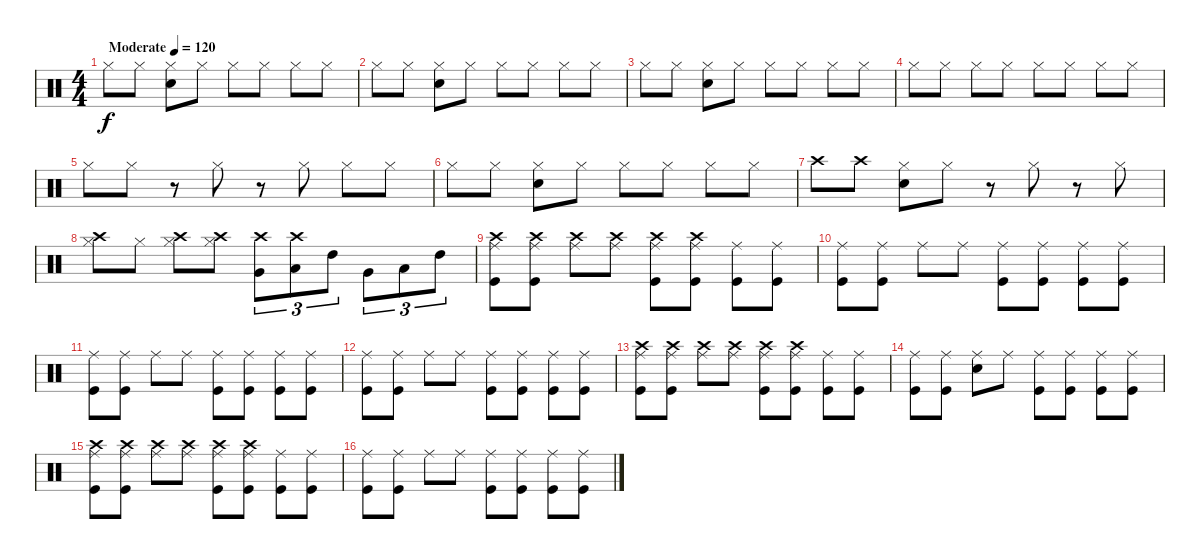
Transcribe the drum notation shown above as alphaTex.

\track "" {instrument percussion}
\staff {score}
\articulation defaults
\ts (4 4)
\tempo (120 "Moderate")
\clef neutral
\ks c "Hi-Hat (closed)".8{dy f} "Hi-Hat (closed)".8
("Hi-Hat (closed)" "Snare (hit) 2").8 "Hi-Hat (closed)".8 "Hi-Hat (closed)".8 "Hi-Hat (closed)".8 "Hi-Hat (closed)".8 "Hi-Hat (closed)".8 |
"Hi-Hat (closed)".8 "Hi-Hat (closed)".8 ("Hi-Hat (closed)" "Snare (hit) 2").8 "Hi-Hat (closed)".8 "Hi-Hat (closed)".8 "Hi-Hat (closed)".8 "Hi-Hat (closed)".8 "Hi-Hat (closed)".8 |
"Hi-Hat (closed)".8 "Hi-Hat (closed)".8 ("Hi-Hat (closed)" "Snare (hit) 2").8 "Hi-Hat (closed)".8 "Hi-Hat (closed)".8 "Hi-Hat (closed)".8 "Hi-Hat (closed)".8 "Hi-Hat (closed)".8 |
"Hi-Hat (closed)".8 "Hi-Hat (closed)".8 "Hi-Hat (closed)".8 "Hi-Hat (closed)".8 "Hi-Hat (closed)".8 "Hi-Hat (closed)".8 "Hi-Hat (closed)".8 "Hi-Hat (closed)".8 |
"Hi-Hat (closed)".8 "Hi-Hat (closed)".8 r.8 "Hi-Hat (closed)".8 r.8 "Hi-Hat (closed)".8 "Hi-Hat (closed)".8 "Hi-Hat (closed)".8 |
"Hi-Hat (closed)".8 "Hi-Hat (closed)".8 ("Hi-Hat (closed)" "Snare (hit) 2").8 "Hi-Hat (closed)".8 "Hi-Hat (closed)".8 "Hi-Hat (closed)".8 "Hi-Hat (closed)".8 "Hi-Hat (closed)".8 |
"Crash high (hit)".8 "Crash high (hit)".8 ("Hi-Hat (closed)" "Snare (hit) 2").8 "Hi-Hat (closed)".8 r.8 "Hi-Hat (closed)".8 r.8 "Hi-Hat (closed)".8 |
("Crash high (hit)" "Hi-Hat (closed)").8 "Hi-Hat (closed)".8 ("Hi-Hat (closed)" "Crash high (hit)").8 ("Hi-Hat (closed)" "Crash high (hit)").8 ("Very Low Tom (hit)" "Crash high (hit)").8{tu (3 2)} ("Low Tom (hit)" "Crash high (hit)").8{tu (3 2)} "High Tom (hit)".8{tu (3 2)} "Very Low Tom (hit)".8{tu (3 2)} "Low Tom (hit)".8{tu (3 2)} "High Tom (hit)".8{tu (3 2)} |
("Ride (middle)" "Kick (hit)" "Crash high (hit)").8 ("Ride (middle)" "Kick (hit)" "Crash high (hit)").8 ("Ride (middle)" "Crash high (hit)").8 ("Ride (middle)" "Crash high (hit)").8 ("Ride (middle)" "Kick (hit)" "Crash high (hit)").8 ("Ride (middle)" "Kick (hit)" "Crash high (hit)").8 ("Ride (middle)" "Kick (hit)").8 ("Ride (middle)" "Kick (hit)").8 |
("Ride (middle)" "Kick (hit)").8 ("Ride (middle)" "Kick (hit)").8 "Ride (middle)".8 "Ride (middle)".8 ("Ride (middle)" "Kick (hit)").8 ("Ride (middle)" "Kick (hit)").8 ("Ride (middle)" "Kick (hit)").8 ("Ride (middle)" "Kick (hit)").8 |
("Ride (middle)" "Kick (hit)").8 ("Ride (middle)" "Kick (hit)").8 "Ride (middle)".8 "Ride (middle)".8 ("Ride (middle)" "Kick (hit)").8 ("Ride (middle)" "Kick (hit)").8 ("Ride (middle)" "Kick (hit)").8 ("Ride (middle)" "Kick (hit)").8 |
("Ride (middle)" "Kick (hit)").8 ("Ride (middle)" "Kick (hit)").8 "Ride (middle)".8 "Ride (middle)".8 ("Ride (middle)" "Kick (hit)").8 ("Ride (middle)" "Kick (hit)").8 ("Ride (middle)" "Kick (hit)").8 ("Ride (middle)" "Kick (hit)").8 |
("Ride (middle)" "Kick (hit)" "Crash high (hit)").8 ("Ride (middle)" "Kick (hit)" "Crash high (hit)").8 ("Ride (middle)" "Crash high (hit)").8 ("Ride (middle)" "Crash high (hit)").8 ("Ride (middle)" "Kick (hit)" "Crash high (hit)").8 ("Ride (middle)" "Kick (hit)" "Crash high (hit)").8 ("Ride (middle)" "Kick (hit)").8 ("Ride (middle)" "Kick (hit)").8 |
("Ride (middle)" "Kick (hit)").8 ("Ride (middle)" "Kick (hit)").8 ("Ride (middle)" "Snare (hit) 2").8 "Ride (middle)".8 ("Ride (middle)" "Kick (hit)").8 ("Ride (middle)" "Kick (hit)").8 ("Ride (middle)" "Kick (hit)").8 ("Ride (middle)" "Kick (hit)").8 |
("Ride (middle)" "Kick (hit)" "Crash high (hit)").8 ("Ride (middle)" "Kick (hit)" "Crash high (hit)").8 ("Ride (middle)" "Crash high (hit)").8 ("Ride (middle)" "Crash high (hit)").8 ("Ride (middle)" "Kick (hit)" "Crash high (hit)").8 ("Ride (middle)" "Kick (hit)" "Crash high (hit)").8 ("Ride (middle)" "Kick (hit)").8 ("Ride (middle)" "Kick (hit)").8 |
("Ride (middle)" "Kick (hit)").8 ("Ride (middle)" "Kick (hit)").8 "Ride (middle)".8 "Ride (middle)".8 ("Ride (middle)" "Kick (hit)").8 ("Ride (middle)" "Kick (hit)").8 ("Ride (middle)" "Kick (hit)").8 ("Ride (middle)" "Kick (hit)").8
